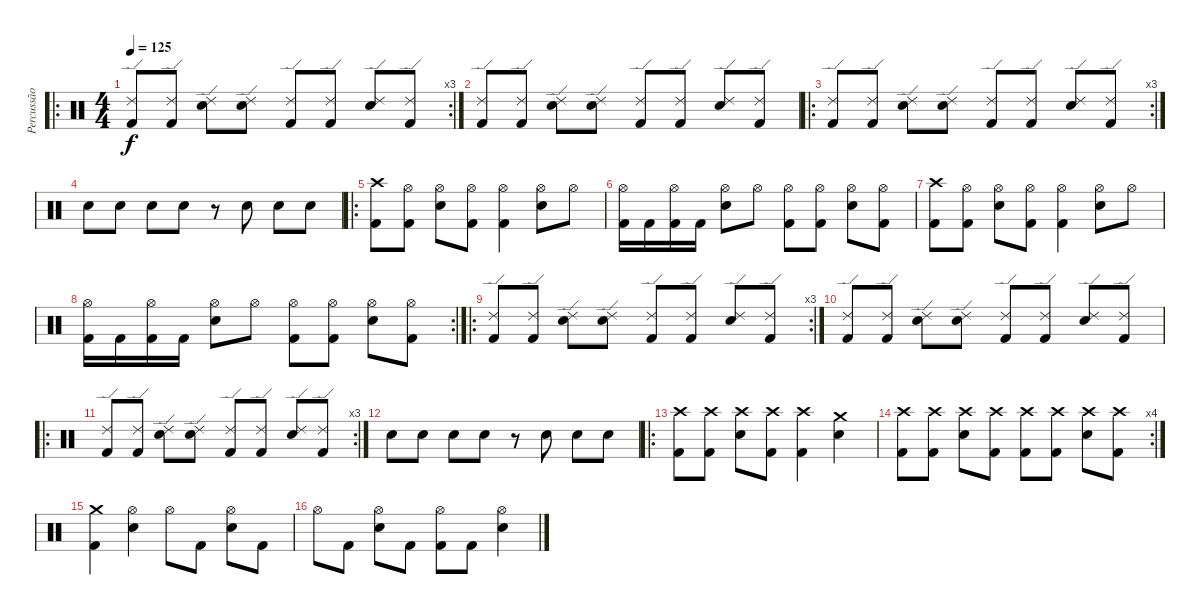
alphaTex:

\track ("Percussão" "Percussão") {instrument percussion}
\staff {score}
\articulation defaults
\ro
\rc 3
\ts (4 4)
\tempo 125
\clef neutral
\ks c
("Ride (edge) 2" "Kick (hit) 2").8{dy f} ("Ride (edge) 2" "Kick (hit) 2").8 ("Ride (edge) 2" "Electric Snare (hit)").8 ("Ride (edge) 2" "Electric Snare (hit)").8 ("Ride (edge) 2" "Kick (hit) 2").8 ("Ride (edge) 2" "Kick (hit) 2").8 ("Ride (edge) 2" "Electric Snare (hit)").8 ("Ride (edge) 2" "Kick (hit) 2").8 |
("Ride (edge) 2" "Kick (hit) 2").8 ("Ride (edge) 2" "Kick (hit) 2").8 ("Ride (edge) 2" "Electric Snare (hit)").8 ("Ride (edge) 2" "Electric Snare (hit)").8 ("Ride (edge) 2" "Kick (hit) 2").8 ("Ride (edge) 2" "Kick (hit) 2").8 ("Ride (edge) 2" "Electric Snare (hit)").8 ("Ride (edge) 2" "Kick (hit) 2").8 |
\ro
\rc 3
("Ride (edge) 2" "Kick (hit) 2").8 ("Ride (edge) 2" "Kick (hit) 2").8 ("Ride (edge) 2" "Electric Snare (hit)").8 ("Ride (edge) 2" "Electric Snare (hit)").8 ("Ride (edge) 2" "Kick (hit) 2").8 ("Ride (edge) 2" "Kick (hit) 2").8 ("Ride (edge) 2" "Electric Snare (hit)").8 ("Ride (edge) 2" "Kick (hit) 2").8 |
"Electric Snare (hit)".8 "Electric Snare (hit)".8 "Electric Snare (hit)".8 "Electric Snare (hit)".8 r.8 "Electric Snare (hit)".8 "Electric Snare (hit)".8 "Electric Snare (hit)".8 |
\ro
("Crash high (hit)" "Kick (hit) 2").8 ("Hi-Hat (open)" "Kick (hit) 2").8 ("Hi-Hat (open)" "Electric Snare (hit)").8 ("Hi-Hat (open)" "Kick (hit) 2").8 ("Hi-Hat (open)" "Kick (hit) 2").4 ("Hi-Hat (open)" "Electric Snare (hit)").8 "Hi-Hat (open)".8 |
("Hi-Hat (open)" "Kick (hit) 2").16 "Kick (hit) 2".16 ("Hi-Hat (open)" "Kick (hit) 2").16 "Kick (hit) 2".16 ("Hi-Hat (open)" "Electric Snare (hit)").8 "Hi-Hat (open)".8 ("Hi-Hat (open)" "Kick (hit) 2").8 ("Hi-Hat (open)" "Kick (hit) 2").8 ("Hi-Hat (open)" "Electric Snare (hit)").8 ("Hi-Hat (open)" "Kick (hit) 2").8 |
("Crash high (hit)" "Kick (hit) 2").8 ("Hi-Hat (open)" "Kick (hit) 2").8 ("Hi-Hat (open)" "Electric Snare (hit)").8 ("Hi-Hat (open)" "Kick (hit) 2").8 ("Hi-Hat (open)" "Kick (hit) 2").4 ("Hi-Hat (open)" "Electric Snare (hit)").8 "Hi-Hat (open)".8 |
\rc 2
("Hi-Hat (open)" "Kick (hit) 2").16 "Kick (hit) 2".16 ("Hi-Hat (open)" "Kick (hit) 2").16 "Kick (hit) 2".16 ("Hi-Hat (open)" "Electric Snare (hit)").8 "Hi-Hat (open)".8 ("Hi-Hat (open)" "Kick (hit) 2").8 ("Hi-Hat (open)" "Kick (hit) 2").8 ("Hi-Hat (open)" "Electric Snare (hit)").8 ("Hi-Hat (open)" "Kick (hit) 2").8 |
\ro
\rc 3
("Ride (edge) 2" "Kick (hit) 2").8 ("Ride (edge) 2" "Kick (hit) 2").8 ("Ride (edge) 2" "Electric Snare (hit)").8 ("Ride (edge) 2" "Electric Snare (hit)").8 ("Ride (edge) 2" "Kick (hit) 2").8 ("Ride (edge) 2" "Kick (hit) 2").8 ("Ride (edge) 2" "Electric Snare (hit)").8 ("Ride (edge) 2" "Kick (hit) 2").8 |
("Ride (edge) 2" "Kick (hit) 2").8 ("Ride (edge) 2" "Kick (hit) 2").8 ("Ride (edge) 2" "Electric Snare (hit)").8 ("Ride (edge) 2" "Electric Snare (hit)").8 ("Ride (edge) 2" "Kick (hit) 2").8 ("Ride (edge) 2" "Kick (hit) 2").8 ("Ride (edge) 2" "Electric Snare (hit)").8 ("Ride (edge) 2" "Kick (hit) 2").8 |
\ro
\rc 3
("Ride (edge) 2" "Kick (hit) 2").8 ("Ride (edge) 2" "Kick (hit) 2").8 ("Ride (edge) 2" "Electric Snare (hit)").8 ("Ride (edge) 2" "Electric Snare (hit)").8 ("Ride (edge) 2" "Kick (hit) 2").8 ("Ride (edge) 2" "Kick (hit) 2").8 ("Ride (edge) 2" "Electric Snare (hit)").8 ("Ride (edge) 2" "Kick (hit) 2").8 |
"Electric Snare (hit)".8 "Electric Snare (hit)".8 "Electric Snare (hit)".8 "Electric Snare (hit)".8 r.8 "Electric Snare (hit)".8 "Electric Snare (hit)".8 "Electric Snare (hit)".8 |
\ro
("Crash high (hit)" "Kick (hit) 2").8 ("Crash high (hit)" "Kick (hit) 2").8 ("Crash high (hit)" "Electric Snare (hit)").8 ("Crash high (hit)" "Kick (hit) 2").8 ("Crash high (hit)" "Kick (hit) 2").4 ("Crash medium (hit)" "Electric Snare (hit)").4 |
\rc 4
("Crash high (hit)" "Kick (hit) 2").8 ("Crash high (hit)" "Kick (hit) 2").8 ("Crash high (hit)" "Electric Snare (hit)").8 ("Crash high (hit)" "Kick (hit) 2").8 ("Crash high (hit)" "Kick (hit) 2").8 ("Crash high (hit)" "Kick (hit) 2").8 ("Crash high (hit)" "Electric Snare (hit)").8 ("Crash high (hit)" "Kick (hit) 2").8 |
("Crash medium (hit)" "Kick (hit) 2").4 ("Hi-Hat (open)" "Electric Snare (hit)").4 "Hi-Hat (open)".8 "Kick (hit) 2".8 ("Hi-Hat (open)" "Electric Snare (hit)").8 "Kick (hit) 2".8 |
"Hi-Hat (open)".8 "Kick (hit) 2".8 ("Hi-Hat (open)" "Electric Snare (hit)").8 "Kick (hit) 2".8 ("Hi-Hat (open)" "Kick (hit) 2").8 "Kick (hit) 2".8 ("Hi-Hat (open)" "Electric Snare (hit)").4
